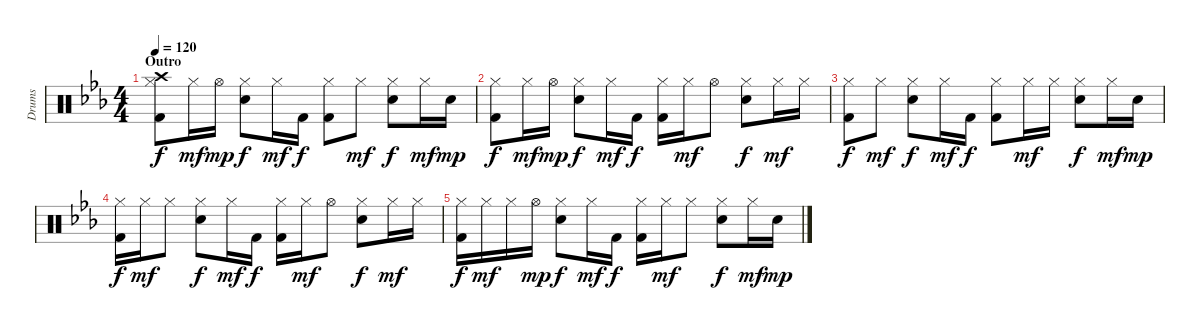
\track ("Drums" "Drums") {instrument percussion}
\staff {score}
\articulation defaults
\ts (4 4)
\section ("" "Outro")
\tempo 120
\clef neutral
\ks eb
("Hi-Hat (closed)" "Crash high (hit)" "Kick (hit) 2").8{dy f} "Hi-Hat (closed)".16{dy mf} "Hi-Hat (open)".16{dy mp} ("Hi-Hat (closed)" "Snare (hit) 2").8{dy f} "Hi-Hat (closed)".16{dy mf} "Kick (hit) 2".16{dy f} ("Hi-Hat (closed)" "Kick (hit) 2").8 "Hi-Hat (closed)".8{dy mf} ("Hi-Hat (closed)" "Snare (hit) 2").8{dy f} "Hi-Hat (closed)".16{dy mf} "Snare (hit) 2".16{dy mp} |
("Hi-Hat (closed)" "Kick (hit) 2").8{dy f} "Hi-Hat (closed)".16{dy mf} "Hi-Hat (open)".16{dy mp} ("Hi-Hat (closed)" "Snare (hit) 2").8{dy f} "Hi-Hat (closed)".16{dy mf} "Kick (hit) 2".16{dy f} ("Hi-Hat (closed)" "Kick (hit) 2").16 "Hi-Hat (closed)".16{dy mf} "Hi-Hat (open)".8 ("Hi-Hat (closed)" "Snare (hit) 2").8{dy f} "Hi-Hat (closed)".16{dy mf} "Hi-Hat (closed)".16 |
("Hi-Hat (closed)" "Kick (hit) 2").8{dy f} "Hi-Hat (closed)".8{dy mf} ("Hi-Hat (closed)" "Snare (hit) 2").8{dy f} "Hi-Hat (closed)".16{dy mf} "Kick (hit) 2".16{dy f} ("Hi-Hat (closed)" "Kick (hit) 2").8 "Hi-Hat (closed)".16{dy mf} "Hi-Hat (closed)".16 ("Hi-Hat (closed)" "Snare (hit) 2").8{dy f} "Hi-Hat (closed)".16{dy mf} "Snare (hit) 2".16{dy mp} |
("Hi-Hat (closed)" "Kick (hit) 2").16{dy f} "Hi-Hat (closed)".16{dy mf} "Hi-Hat (closed)".8 ("Hi-Hat (closed)" "Snare (hit) 2").8{dy f} "Hi-Hat (closed)".16{dy mf} "Kick (hit) 2".16{dy f} ("Hi-Hat (closed)" "Kick (hit) 2").16 "Hi-Hat (closed)".16{dy mf} "Hi-Hat (open)".8 ("Hi-Hat (closed)" "Snare (hit) 2").8{dy f} "Hi-Hat (closed)".16{dy mf} "Hi-Hat (closed)".16 |
("Hi-Hat (closed)" "Kick (hit) 2").16{dy f} "Hi-Hat (closed)".16{dy mf} "Hi-Hat (closed)".16 "Hi-Hat (open)".16{dy mp} ("Hi-Hat (closed)" "Snare (hit) 2").8{dy f} "Hi-Hat (closed)".16{dy mf} "Kick (hit) 2".16{dy f} ("Hi-Hat (closed)" "Kick (hit) 2").16 "Hi-Hat (closed)".16{dy mf} "Hi-Hat (closed)".8 ("Hi-Hat (closed)" "Snare (hit) 2").8{dy f} "Hi-Hat (closed)".16{dy mf} "Snare (hit) 2".16{dy mp}
